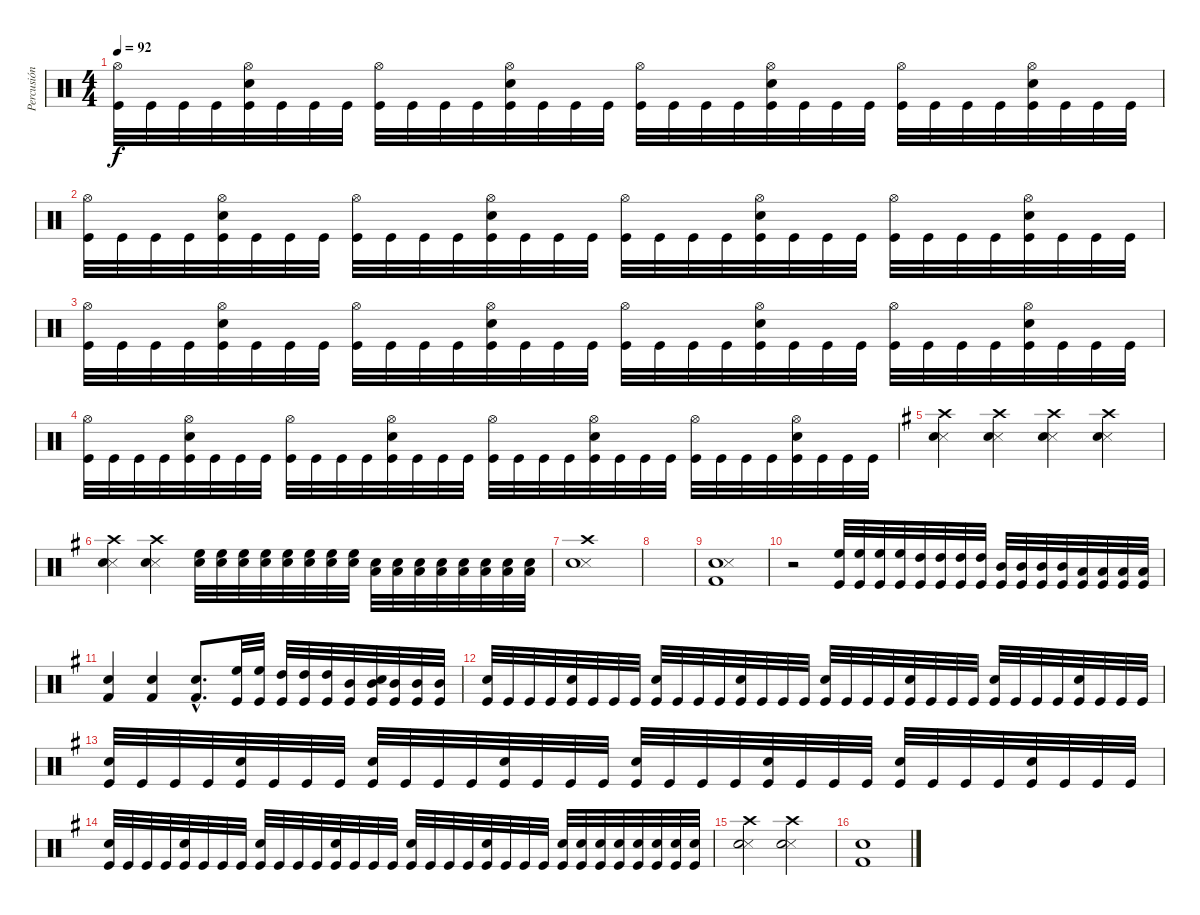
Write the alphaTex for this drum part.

\track ("Percusión" "Percusión") {instrument percussion}
\staff {score}
\articulation defaults
\ts (4 4)
\tempo 92
\clef neutral
\ks c
("Hi-Hat (open)" "Kick (hit)").32{dy f} "Kick (hit)".32 "Kick (hit)".32 "Kick (hit)".32 ("Snare (hit) 2" "Hi-Hat (open)" "Kick (hit)").32 "Kick (hit)".32 "Kick (hit)".32 "Kick (hit)".32 ("Hi-Hat (open)" "Kick (hit)").32 "Kick (hit)".32 "Kick (hit)".32 "Kick (hit)".32 ("Snare (hit) 2" "Hi-Hat (open)" "Kick (hit)").32 "Kick (hit)".32 "Kick (hit)".32 "Kick (hit)".32 ("Hi-Hat (open)" "Kick (hit)").32 "Kick (hit)".32 "Kick (hit)".32 "Kick (hit)".32 ("Snare (hit) 2" "Hi-Hat (open)" "Kick (hit)").32 "Kick (hit)".32 "Kick (hit)".32 "Kick (hit)".32 ("Hi-Hat (open)" "Kick (hit)").32 "Kick (hit)".32 "Kick (hit)".32 "Kick (hit)".32 ("Snare (hit) 2" "Hi-Hat (open)" "Kick (hit)").32 "Kick (hit)".32 "Kick (hit)".32 "Kick (hit)".32 |
("Hi-Hat (open)" "Kick (hit)").32 "Kick (hit)".32 "Kick (hit)".32 "Kick (hit)".32 ("Snare (hit) 2" "Hi-Hat (open)" "Kick (hit)").32 "Kick (hit)".32 "Kick (hit)".32 "Kick (hit)".32 ("Hi-Hat (open)" "Kick (hit)").32 "Kick (hit)".32 "Kick (hit)".32 "Kick (hit)".32 ("Snare (hit) 2" "Hi-Hat (open)" "Kick (hit)").32 "Kick (hit)".32 "Kick (hit)".32 "Kick (hit)".32 ("Hi-Hat (open)" "Kick (hit)").32 "Kick (hit)".32 "Kick (hit)".32 "Kick (hit)".32 ("Snare (hit) 2" "Hi-Hat (open)" "Kick (hit)").32 "Kick (hit)".32 "Kick (hit)".32 "Kick (hit)".32 ("Hi-Hat (open)" "Kick (hit)").32 "Kick (hit)".32 "Kick (hit)".32 "Kick (hit)".32 ("Snare (hit) 2" "Hi-Hat (open)" "Kick (hit)").32 "Kick (hit)".32 "Kick (hit)".32 "Kick (hit)".32 |
("Hi-Hat (open)" "Kick (hit)").32 "Kick (hit)".32 "Kick (hit)".32 "Kick (hit)".32 ("Snare (hit) 2" "Hi-Hat (open)" "Kick (hit)").32 "Kick (hit)".32 "Kick (hit)".32 "Kick (hit)".32 ("Hi-Hat (open)" "Kick (hit)").32 "Kick (hit)".32 "Kick (hit)".32 "Kick (hit)".32 ("Snare (hit) 2" "Hi-Hat (open)" "Kick (hit)").32 "Kick (hit)".32 "Kick (hit)".32 "Kick (hit)".32 ("Hi-Hat (open)" "Kick (hit)").32 "Kick (hit)".32 "Kick (hit)".32 "Kick (hit)".32 ("Snare (hit) 2" "Hi-Hat (open)" "Kick (hit)").32 "Kick (hit)".32 "Kick (hit)".32 "Kick (hit)".32 ("Hi-Hat (open)" "Kick (hit)").32 "Kick (hit)".32 "Kick (hit)".32 "Kick (hit)".32 ("Snare (hit) 2" "Hi-Hat (open)" "Kick (hit)").32 "Kick (hit)".32 "Kick (hit)".32 "Kick (hit)".32 |
("Hi-Hat (open)" "Kick (hit)").32 "Kick (hit)".32 "Kick (hit)".32 "Kick (hit)".32 ("Snare (hit) 2" "Hi-Hat (open)" "Kick (hit)").32 "Kick (hit)".32 "Kick (hit)".32 "Kick (hit)".32 ("Hi-Hat (open)" "Kick (hit)").32 "Kick (hit)".32 "Kick (hit)".32 "Kick (hit)".32 ("Snare (hit) 2" "Hi-Hat (open)" "Kick (hit)").32 "Kick (hit)".32 "Kick (hit)".32 "Kick (hit)".32 ("Hi-Hat (open)" "Kick (hit)").32 "Kick (hit)".32 "Kick (hit)".32 "Kick (hit)".32 ("Snare (hit) 2" "Hi-Hat (open)" "Kick (hit)").32 "Kick (hit)".32 "Kick (hit)".32 "Kick (hit)".32 ("Hi-Hat (open)" "Kick (hit)").32 "Kick (hit)".32 "Kick (hit)".32 "Kick (hit)".32 ("Snare (hit) 2" "Hi-Hat (open)" "Kick (hit)").32 "Kick (hit)".32 "Kick (hit)".32 "Kick (hit)".32 |
\ks g
("Snare (side stick) 3" "Snare (hit) 2" "Crash high (hit)").4 ("Snare (side stick) 3" "Snare (hit) 2" "Crash high (hit)").4 ("Snare (side stick) 3" "Snare (hit) 2" "Crash high (hit)").4 ("Snare (side stick) 3" "Snare (hit) 2" "Crash high (hit)").4 |
("Snare (side stick) 3" "Snare (hit) 2" "Crash high (hit)").4 ("Snare (side stick) 3" "Snare (hit) 2" "Crash high (hit)").4 ("High Floor Tom (hit)" "Snare (hit) 2").32 ("High Floor Tom (hit)" "Snare (hit) 2").32 ("High Floor Tom (hit)" "Snare (hit) 2").32 ("High Floor Tom (hit)" "Snare (hit) 2").32 ("High Floor Tom (hit)" "Snare (hit) 2").32 ("High Floor Tom (hit)" "Snare (hit) 2").32 ("High Floor Tom (hit)" "Snare (hit) 2").32 ("High Floor Tom (hit)" "Snare (hit) 2").32 ("Low Tom (hit)" "Snare (hit) 2").32 ("Low Tom (hit)" "Snare (hit) 2").32 ("Low Tom (hit)" "Snare (hit) 2").32 ("Low Tom (hit)" "Snare (hit) 2").32 ("Low Tom (hit)" "Snare (hit) 2").32 ("Low Tom (hit)" "Snare (hit) 2").32 ("Low Tom (hit)" "Snare (hit) 2").32 ("Low Tom (hit)" "Snare (hit) 2").32 |
("Snare (side stick) 3" "Snare (hit) 2" "Crash high (hit)").1 |
|
("Snare (hit) 2" "Snare (side stick) 3" "Kick (hit) 2").1 |
r.2 ("High Floor Tom (hit)" "Kick (hit)").32 ("High Floor Tom (hit)" "Kick (hit)").32 ("High Floor Tom (hit)" "Kick (hit)").32 ("High Floor Tom (hit)" "Kick (hit)").32 ("High Tom (hit)" "Kick (hit)").32 ("High Tom (hit)" "Kick (hit)").32 ("High Tom (hit)" "Kick (hit)").32 ("High Tom (hit)" "Kick (hit)").32 ("Mid Tom (hit)" "Kick (hit)").32 ("Mid Tom (hit)" "Kick (hit)").32 ("Mid Tom (hit)" "Kick (hit)").32 ("Mid Tom (hit)" "Kick (hit)").32 ("Low Tom (hit)" "Kick (hit)").32 ("Low Tom (hit)" "Kick (hit)").32 ("Low Tom (hit)" "Kick (hit)").32 ("Low Tom (hit)" "Kick (hit)").32 |
("Snare (hit) 2" "Kick (hit) 2").4 ("Snare (hit) 2" "Kick (hit) 2").4 ("Snare (hit) 2"{hac} "Kick (hit) 2"{hac}).8{d} ("High Floor Tom (hit)" "Kick (hit)").32 ("High Floor Tom (hit)" "Kick (hit)").32 ("High Tom (hit)" "Kick (hit)").32 ("High Tom (hit)" "Kick (hit)").32 ("High Tom (hit)" "Kick (hit)").32 ("Mid Tom (hit)" "Kick (hit)").32 ("Mid Tom (hit)" "Snare (hit) 2" "Kick (hit)").32 ("Mid Tom (hit)" "Kick (hit)").32 ("Mid Tom (hit)" "Kick (hit)").32 ("Mid Tom (hit)" "Kick (hit)").32 |
("Snare (hit) 2" "Kick (hit)").32 "Kick (hit)".32 "Kick (hit)".32 "Kick (hit)".32 ("Snare (hit) 2" "Kick (hit)").32 "Kick (hit)".32 "Kick (hit)".32 "Kick (hit)".32 ("Snare (hit) 2" "Kick (hit)").32 "Kick (hit)".32 "Kick (hit)".32 "Kick (hit)".32 ("Snare (hit) 2" "Kick (hit)").32 "Kick (hit)".32 "Kick (hit)".32 "Kick (hit)".32 ("Snare (hit) 2" "Kick (hit)").32 "Kick (hit)".32 "Kick (hit)".32 "Kick (hit)".32 ("Snare (hit) 2" "Kick (hit)").32 "Kick (hit)".32 "Kick (hit)".32 "Kick (hit)".32 ("Snare (hit) 2" "Kick (hit)").32 "Kick (hit)".32 "Kick (hit)".32 "Kick (hit)".32 ("Snare (hit) 2" "Kick (hit)").32 "Kick (hit)".32 "Kick (hit)".32 "Kick (hit)".32 |
("Snare (hit) 2" "Kick (hit)").32 "Kick (hit)".32 "Kick (hit)".32 "Kick (hit)".32 ("Snare (hit) 2" "Kick (hit)").32 "Kick (hit)".32 "Kick (hit)".32 "Kick (hit)".32 ("Snare (hit) 2" "Kick (hit)").32 "Kick (hit)".32 "Kick (hit)".32 "Kick (hit)".32 ("Snare (hit) 2" "Kick (hit)").32 "Kick (hit)".32 "Kick (hit)".32 "Kick (hit)".32 ("Snare (hit) 2" "Kick (hit)").32 "Kick (hit)".32 "Kick (hit)".32 "Kick (hit)".32 ("Snare (hit) 2" "Kick (hit)").32 "Kick (hit)".32 "Kick (hit)".32 "Kick (hit)".32 ("Snare (hit) 2" "Kick (hit)").32 "Kick (hit)".32 "Kick (hit)".32 "Kick (hit)".32 ("Snare (hit) 2" "Kick (hit)").32 "Kick (hit)".32 "Kick (hit)".32 "Kick (hit)".32 |
("Snare (hit) 2" "Kick (hit)").32 "Kick (hit)".32 "Kick (hit)".32 "Kick (hit)".32 ("Snare (hit) 2" "Kick (hit)").32 "Kick (hit)".32 "Kick (hit)".32 "Kick (hit)".32 ("Snare (hit) 2" "Kick (hit)").32 "Kick (hit)".32 "Kick (hit)".32 "Kick (hit)".32 ("Snare (hit) 2" "Kick (hit)").32 "Kick (hit)".32 "Kick (hit)".32 "Kick (hit)".32 ("Snare (hit) 2" "Kick (hit)").32 "Kick (hit)".32 "Kick (hit)".32 "Kick (hit)".32 ("Snare (hit) 2" "Kick (hit)").32 "Kick (hit)".32 "Kick (hit)".32 "Kick (hit)".32 ("Snare (hit) 2" "Kick (hit)").32 ("Snare (hit) 2" "Kick (hit)").32 ("Snare (hit) 2" "Kick (hit)").32 ("Snare (hit) 2" "Kick (hit)").32 ("Snare (hit) 2" "Kick (hit)").32 ("Snare (hit) 2" "Kick (hit)").32 ("Snare (hit) 2" "Kick (hit)").32 ("Snare (hit) 2" "Kick (hit)").32 |
("Snare (side stick) 3" "Snare (hit) 2" "Crash high (hit)").2 ("Snare (side stick) 3" "Snare (hit) 2" "Crash high (hit)").2 |
("Kick (hit) 2" "Snare (hit) 2").1
